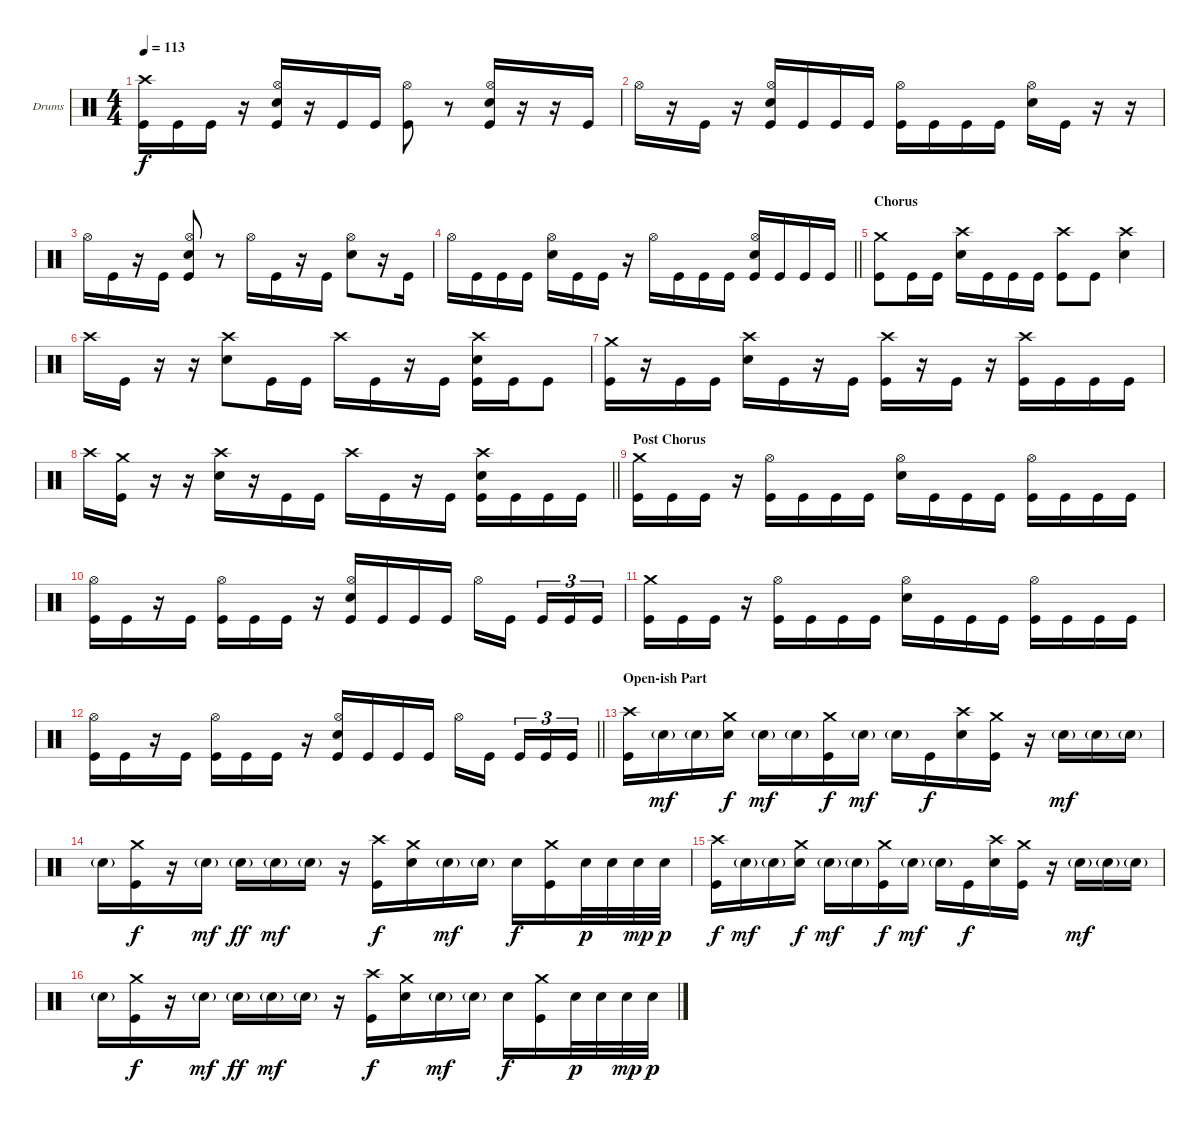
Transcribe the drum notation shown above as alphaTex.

\bracketExtendMode groupsimilarinstruments
\firstSystemTrackNameOrientation horizontal
\otherSystemsTrackNameOrientation horizontal
\track ("Drumkit" "Drums") {instrument percussion}
\staff {score}
\articulation defaults
\ts (4 4)
\tempo 113
\clef neutral
\ks c
("Crash high (hit)" "Kick (hit)").16{dy f} "Kick (hit)".16 "Kick (hit)".16 r.16 ("Hi-Hat (open)" "Snare (hit) 2" "Kick (hit)").16 r.16 "Kick (hit)".16 "Kick (hit)".16 ("Hi-Hat (open)" "Kick (hit)").8 r.8 ("Hi-Hat (open)" "Snare (hit) 2" "Kick (hit)").16 r.16 r.16 "Kick (hit)".16 |
"Hi-Hat (open)".16 r.16 "Kick (hit)".16 r.16 ("Hi-Hat (open)" "Snare (hit) 2" "Kick (hit)").16 "Kick (hit)".16 "Kick (hit)".16 "Kick (hit)".16 ("Hi-Hat (open)" "Kick (hit)").16 "Kick (hit)".16 "Kick (hit)".16 "Kick (hit)".16 ("Hi-Hat (open)" "Snare (hit) 2").16 "Kick (hit)".16 r.16 r.16 |
"Hi-Hat (open)".16 "Kick (hit)".16 r.16 "Kick (hit)".16 ("Hi-Hat (open)" "Snare (hit) 2" "Kick (hit)").8 r.8 "Hi-Hat (open)".16 "Kick (hit)".16 r.16 "Kick (hit)".16 ("Hi-Hat (open)" "Snare (hit) 2").8 r.16 "Kick (hit)".16 |
\barLineRight lightlight "Hi-Hat (open)".16 "Kick (hit)".16 "Kick (hit)".16 "Kick (hit)".16
("Hi-Hat (open)" "Snare (hit) 2").16 "Kick (hit)".16 "Kick (hit)".16 r.16 "Hi-Hat (open)".16 "Kick (hit)".16 "Kick (hit)".16 "Kick (hit)".16 ("Hi-Hat (open)" "Snare (hit) 2" "Kick (hit)").16 "Kick (hit)".16 "Kick (hit)".16 "Kick (hit)".16 |
\section ("" "Chorus")
("Crash medium (hit)" "Kick (hit)").8 "Kick (hit)".16 "Kick (hit)".16 ("Crash high (hit)" "Snare (hit) 2").16 "Kick (hit)".16 "Kick (hit)".16 "Kick (hit)".16 ("Crash high (hit)" "Kick (hit)").8 "Kick (hit)".8 ("Crash high (hit)" "Snare (hit) 2").4 |
"Crash high (hit)".16 "Kick (hit)".16 r.16 r.16 ("Crash high (hit)" "Snare (hit) 2").8 "Kick (hit)".16 "Kick (hit)".16 "Crash high (hit)".16 "Kick (hit)".16 r.16 "Kick (hit)".16 ("Crash high (hit)" "Snare (hit) 2" "Kick (hit)").16 "Kick (hit)".16 "Kick (hit)".8 |
("Crash medium (hit)" "Kick (hit)").16 r.16 "Kick (hit)".16 "Kick (hit)".16 ("Crash high (hit)" "Snare (hit) 2").16 "Kick (hit)".16 r.16 "Kick (hit)".16 ("Crash high (hit)" "Kick (hit)").16 r.16 "Kick (hit)".16 r.16 ("Crash high (hit)" "Kick (hit)").16 "Kick (hit)".16 "Kick (hit)".16 "Kick (hit)".16 |
\barLineRight lightlight "Crash high (hit)".16
("Crash medium (hit)" "Kick (hit)").16 r.16 r.16 ("Crash high (hit)" "Snare (hit) 2").16 r.16 "Kick (hit)".16 "Kick (hit)".16 "Crash high (hit)".16 "Kick (hit)".16 r.16 "Kick (hit)".16 ("Crash high (hit)" "Snare (hit) 2" "Kick (hit)").16 "Kick (hit)".16 "Kick (hit)".16 "Kick (hit)".16 |
\section ("" "Post Chorus")
("Crash medium (hit)" "Kick (hit)").16 "Kick (hit)".16 "Kick (hit)".16 r.16 ("Hi-Hat (open)" "Kick (hit)").16 "Kick (hit)".16 "Kick (hit)".16 "Kick (hit)".16 ("Hi-Hat (open)" "Snare (hit) 2").16 "Kick (hit)".16 "Kick (hit)".16 "Kick (hit)".16 ("Hi-Hat (open)" "Kick (hit)").16 "Kick (hit)".16 "Kick (hit)".16 "Kick (hit)".16 |
("Hi-Hat (open)" "Kick (hit)").16 "Kick (hit)".16 r.16 "Kick (hit)".16 ("Hi-Hat (open)" "Kick (hit)").16 "Kick (hit)".16 "Kick (hit)".16 r.16 ("Hi-Hat (open)" "Snare (hit) 2" "Kick (hit)").16 "Kick (hit)".16 "Kick (hit)".16 "Kick (hit)".16 "Hi-Hat (open)".16 "Kick (hit)".16 "Kick (hit)".16{tu (3 2)} "Kick (hit)".16{tu (3 2)} "Kick (hit)".16{tu (3 2)} |
("Crash medium (hit)" "Kick (hit)").16 "Kick (hit)".16 "Kick (hit)".16 r.16 ("Hi-Hat (open)" "Kick (hit)").16 "Kick (hit)".16 "Kick (hit)".16 "Kick (hit)".16 ("Hi-Hat (open)" "Snare (hit) 2").16 "Kick (hit)".16 "Kick (hit)".16 "Kick (hit)".16 ("Hi-Hat (open)" "Kick (hit)").16 "Kick (hit)".16 "Kick (hit)".16 "Kick (hit)".16 |
\barLineRight lightlight
("Hi-Hat (open)" "Kick (hit)").16 "Kick (hit)".16 r.16 "Kick (hit)".16 ("Hi-Hat (open)" "Kick (hit)").16 "Kick (hit)".16 "Kick (hit)".16 r.16 ("Hi-Hat (open)" "Snare (hit) 2" "Kick (hit)").16 "Kick (hit)".16 "Kick (hit)".16 "Kick (hit)".16 "Hi-Hat (open)".16 "Kick (hit)".16 "Kick (hit)".16{tu (3 2)} "Kick (hit)".16{tu (3 2)} "Kick (hit)".16{tu (3 2)} |
\section ("" "Open-ish Part")
("Crash high (hit)" "Kick (hit)").16 "Snare (hit) 2"{g}.16{dy mf} "Snare (hit) 2"{g}.16 ("Crash medium (hit)" "Snare (hit) 2").16{dy f} "Snare (hit) 2"{g}.16{dy mf} "Snare (hit) 2"{g}.16 ("Crash medium (hit)" "Kick (hit)").16{dy f} "Snare (hit) 2"{g}.16{dy mf} "Snare (hit) 2"{g}.16 "Kick (hit)".16{dy f} ("Crash high (hit)" "Snare (hit) 2").16 ("Crash medium (hit)" "Kick (hit)").16 r.16 "Snare (hit) 2"{g}.16{dy mf} "Snare (hit) 2"{g}.16 "Snare (hit) 2"{g}.16 |
"Snare (hit) 2"{g}.16 ("Crash medium (hit)" "Kick (hit)").16{dy f} r.16 "Snare (hit) 2"{g}.16{dy mf} "Snare (hit) 2"{g}.16{dy ff} "Snare (hit) 2"{g}.16{dy mf} "Snare (hit) 2"{g}.16 r.16 ("Crash high (hit)" "Kick (hit)").16{dy f} ("Crash medium (hit)" "Snare (hit) 2").16 "Snare (hit) 2"{g}.16{dy mf} "Snare (hit) 2"{g}.16 "Snare (hit) 2".16{dy f} ("Crash medium (hit)" "Kick (hit)").16 "Snare (hit) 2".32{dy p} "Snare (hit) 2".32 "Snare (hit) 2".32{dy mp} "Snare (hit) 2".32{dy p} |
("Crash high (hit)" "Kick (hit)").16{dy f} "Snare (hit) 2"{g}.16{dy mf} "Snare (hit) 2"{g}.16 ("Crash medium (hit)" "Snare (hit) 2").16{dy f} "Snare (hit) 2"{g}.16{dy mf} "Snare (hit) 2"{g}.16 ("Crash medium (hit)" "Kick (hit)").16{dy f} "Snare (hit) 2"{g}.16{dy mf} "Snare (hit) 2"{g}.16 "Kick (hit)".16{dy f} ("Crash high (hit)" "Snare (hit) 2").16 ("Crash medium (hit)" "Kick (hit)").16 r.16 "Snare (hit) 2"{g}.16{dy mf} "Snare (hit) 2"{g}.16 "Snare (hit) 2"{g}.16 |
"Snare (hit) 2"{g}.16 ("Crash medium (hit)" "Kick (hit)").16{dy f} r.16 "Snare (hit) 2"{g}.16{dy mf} "Snare (hit) 2"{g}.16{dy ff} "Snare (hit) 2"{g}.16{dy mf} "Snare (hit) 2"{g}.16 r.16 ("Crash high (hit)" "Kick (hit)").16{dy f} ("Crash medium (hit)" "Snare (hit) 2").16 "Snare (hit) 2"{g}.16{dy mf} "Snare (hit) 2"{g}.16 "Snare (hit) 2".16{dy f} ("Crash medium (hit)" "Kick (hit)").16 "Snare (hit) 2".32{dy p} "Snare (hit) 2".32 "Snare (hit) 2".32{dy mp} "Snare (hit) 2".32{dy p}
